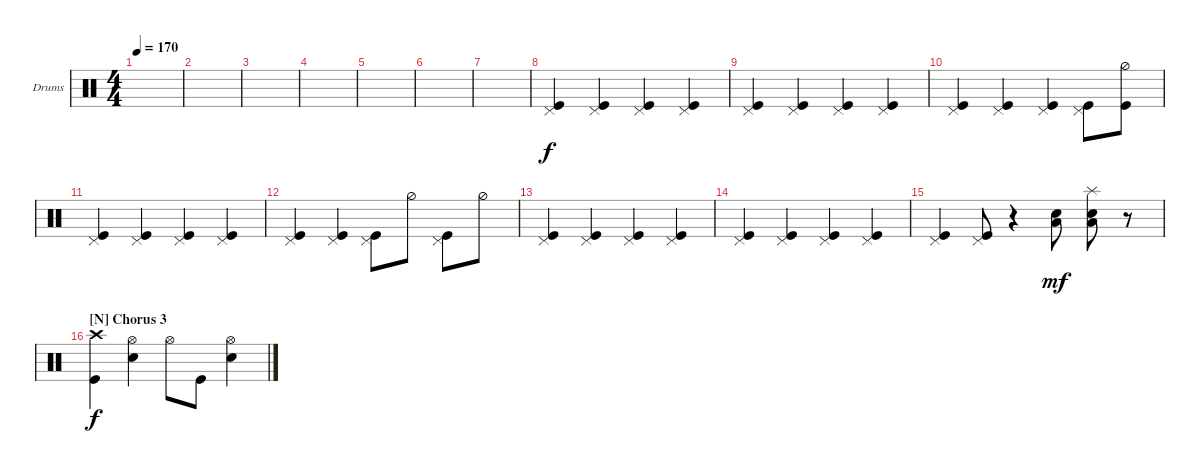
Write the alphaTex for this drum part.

\defaultSystemsLayout 4
\bracketExtendMode groupsimilarinstruments
\firstSystemTrackNameOrientation horizontal
\otherSystemsTrackNameOrientation horizontal
\track ("Drumkit" "Drums") {instrument percussion}
\staff {score}
\articulation defaults
\ts (4 4)
\tempo 170
\clef neutral
\ks c
|
|
|
|
|
|
|
("Pedal Hi-Hat (hit)" "Kick (hit)").4{dy f} ("Pedal Hi-Hat (hit)" "Kick (hit)").4 ("Pedal Hi-Hat (hit)" "Kick (hit)").4 ("Pedal Hi-Hat (hit)" "Kick (hit)").4 |
("Pedal Hi-Hat (hit)" "Kick (hit)").4 ("Pedal Hi-Hat (hit)" "Kick (hit)").4 ("Pedal Hi-Hat (hit)" "Kick (hit)").4 ("Pedal Hi-Hat (hit)" "Kick (hit)").4 |
("Pedal Hi-Hat (hit)" "Kick (hit)").4 ("Pedal Hi-Hat (hit)" "Kick (hit)").4 ("Pedal Hi-Hat (hit)" "Kick (hit)").4 ("Pedal Hi-Hat (hit)" "Kick (hit)").8 ("Hi-Hat (half)" "Kick (hit)").8 |
("Pedal Hi-Hat (hit)" "Kick (hit)").4 ("Pedal Hi-Hat (hit)" "Kick (hit)").4 ("Pedal Hi-Hat (hit)" "Kick (hit)").4 ("Pedal Hi-Hat (hit)" "Kick (hit)").4 |
("Pedal Hi-Hat (hit)" "Kick (hit)").4 ("Pedal Hi-Hat (hit)" "Kick (hit)").4 ("Pedal Hi-Hat (hit)" "Kick (hit)").8 "Hi-Hat (half)".8 ("Pedal Hi-Hat (hit)" "Kick (hit)").8 "Hi-Hat (half)".8 |
("Pedal Hi-Hat (hit)" "Kick (hit)").4 ("Pedal Hi-Hat (hit)" "Kick (hit)").4 ("Pedal Hi-Hat (hit)" "Kick (hit)").4 ("Pedal Hi-Hat (hit)" "Kick (hit)").4 |
("Pedal Hi-Hat (hit)" "Kick (hit)").4 ("Pedal Hi-Hat (hit)" "Kick (hit)").4 ("Pedal Hi-Hat (hit)" "Kick (hit)").4 ("Pedal Hi-Hat (hit)" "Kick (hit)").4 |
("Pedal Hi-Hat (hit)" "Kick (hit)").4 ("Pedal Hi-Hat (hit)" "Kick (hit)").8 r.4 ("Snare (hit) 2" "Low Tom (hit)").8{dy mf} ("Snare (hit) 2" "Low Tom (hit)" "Splash (hit)").8 r.8 |
\section ("N" "Chorus 3")
("Crash high (hit)" "Kick (hit)").4{dy f} ("Hi-Hat (open)" "Snare (hit) 2").4 "Hi-Hat (open)".8 "Kick (hit)".8 ("Hi-Hat (open)" "Snare (hit) 2").4
